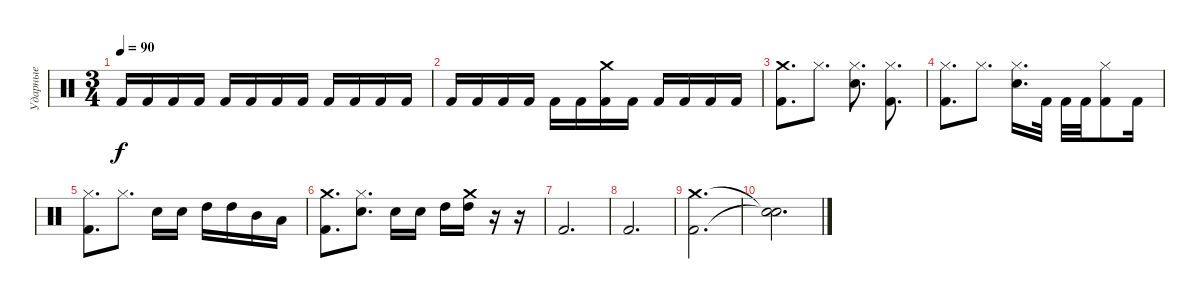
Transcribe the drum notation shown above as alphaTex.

\track ("Ударные" "Ударные") {instrument percussion}
\staff {score}
\articulation defaults
\ts (3 4)
\tempo 90
\clef neutral
\ks c "Kick (hit) 2".16{dy f} "Kick (hit) 2".16 "Kick (hit) 2".16 "Kick (hit) 2".16 "Kick (hit) 2".16 "Kick (hit) 2".16 "Kick (hit) 2".16 "Kick (hit) 2".16 "Kick (hit) 2".16 "Kick (hit) 2".16 "Kick (hit) 2".16 "Kick (hit) 2".16
|
"Kick (hit) 2".16 "Kick (hit) 2".16 "Kick (hit) 2".16 "Kick (hit) 2".16 "Kick (hit) 2".16 "Kick (hit) 2".16 ("Crash medium (hit)" "Kick (hit) 2").16 "Kick (hit) 2".16 "Kick (hit) 2".16 "Kick (hit) 2".16 "Kick (hit) 2".16 "Kick (hit) 2".16 |
("Crash medium (hit)" "Kick (hit) 2").8{d} "Hi-Hat (closed)".8{d} ("Hi-Hat (closed)" "Snare (hit) 2").8{d} ("Hi-Hat (closed)" "Kick (hit) 2").8{d} |
("Hi-Hat (closed)" "Kick (hit) 2").8{d} "Hi-Hat (closed)".8{d} ("Hi-Hat (closed)" "Snare (hit) 2").16{d} "Kick (hit) 2".32 "Kick (hit) 2".32 "Kick (hit) 2".32 ("Hi-Hat (closed)" "Kick (hit) 2").8 "Kick (hit) 2".16 |
("Hi-Hat (closed)" "Kick (hit) 2").8{d} "Hi-Hat (closed)".8{d} "Snare (hit) 2".16 "Snare (hit) 2".16 "High Tom (hit)".16 "High Tom (hit)".16 "Mid Tom (hit)".16 "Low Tom (hit)".16 |
("Crash medium (hit)" "Kick (hit) 2").8{d} ("Hi-Hat (closed)" "Snare (hit) 2").8{d} "Snare (hit) 2".16 "Snare (hit) 2".16 "High Tom (hit)".16 ("Crash medium (hit)" "High Tom (hit)").16 r.16 r.16 |
"Kick (hit) 2".2{d} |
"Kick (hit) 2".2{d} |
("Kick (hit) 2" "Crash medium (hit)").2{d} |
("Snare (hit)"{t} "Snare (hit)"{t}).2{d}
